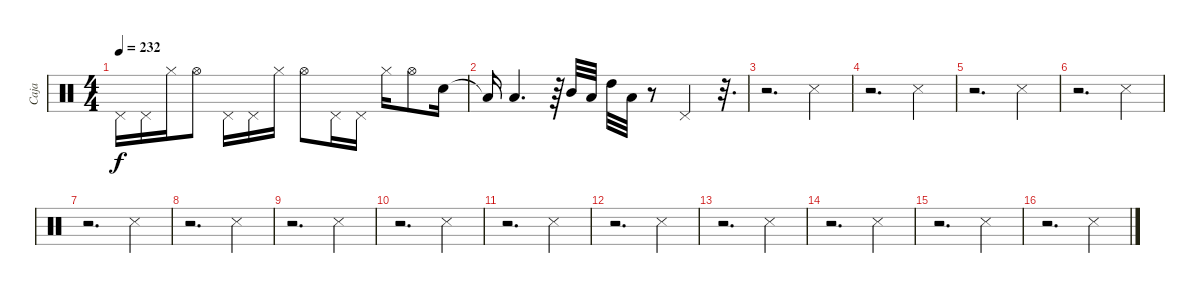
\track ("Caja" "Caja") {instrument percussion}
\staff {score}
\articulation defaults
\ts (4 4)
\tempo 232
\clef neutral
\ks c "Pedal Hi-Hat (hit)".16{dy f} "Pedal Hi-Hat (hit)".16 "Hi-Hat (closed)".16 "Hi-Hat (open)".8 "Pedal Hi-Hat (hit)".16 "Pedal Hi-Hat (hit)".16 "Hi-Hat (closed)".16 "Hi-Hat (open)".8 "Pedal Hi-Hat (hit)".16 "Pedal Hi-Hat (hit)".16 "Hi-Hat (closed)".16 "Hi-Hat (open)".8 "Snare (hit) 2".16
|
"Low Floor Tom (hit)"{t}.16 "Low Floor Tom (hit)".4{d} r.64 "Mid Tom (hit)".32 "Low Floor Tom (hit)".32 "High Tom (hit)".32 "Low Floor Tom (hit)".32 r.8 "Pedal Hi-Hat (hit)".4 r.32{d} |
r.2{d} "Snare (side stick) 3".4 |
r.2{d} "Snare (side stick) 3".4 |
r.2{d} "Snare (side stick) 3".4 |
r.2{d} "Snare (side stick) 3".4 |
r.2{d} "Snare (side stick) 3".4 |
r.2{d} "Snare (side stick) 3".4 |
r.2{d} "Snare (side stick) 3".4 |
r.2{d} "Snare (side stick) 3".4 |
r.2{d} "Snare (side stick) 3".4 |
r.2{d} "Snare (side stick) 3".4 |
r.2{d} "Snare (side stick) 3".4 |
r.2{d} "Snare (side stick) 3".4 |
r.2{d} "Snare (side stick) 3".4 |
r.2{d} "Snare (side stick) 3".4
